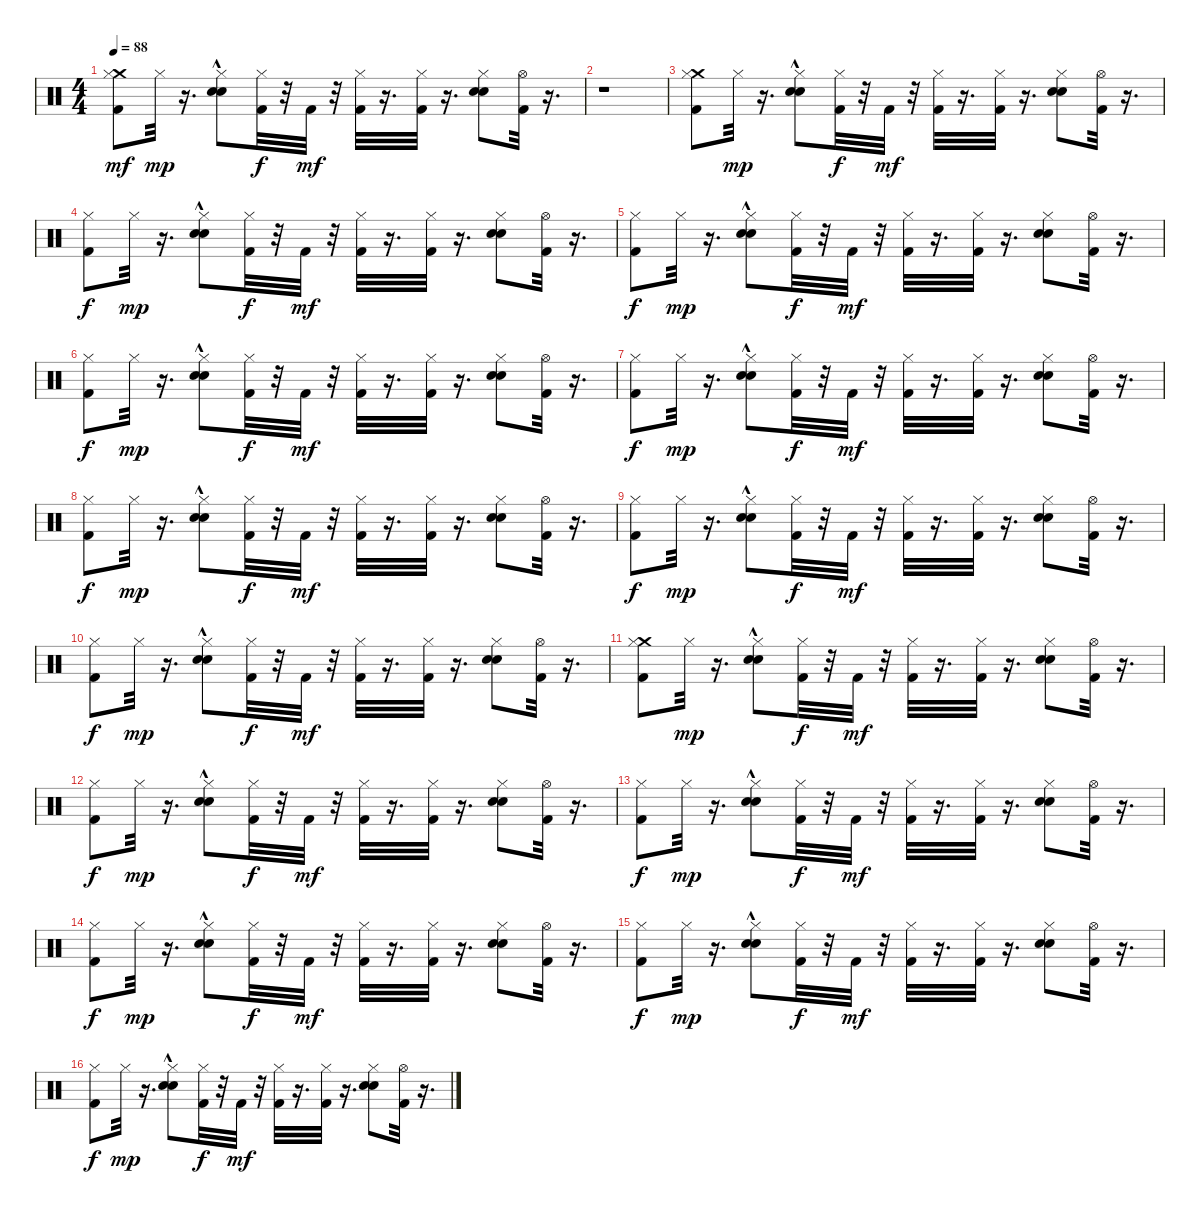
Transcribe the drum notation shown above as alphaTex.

\track "" {instrument percussion}
\staff {score}
\articulation defaults
\ts (4 4)
\tempo 88
\clef neutral
\ks c
("Crash medium (hit)" "Hi-Hat (closed)" "Kick (hit) 2").8{dy mf} "Hi-Hat (closed)".32{dy mp} r.16{d} ("Hi-Hat (closed)" "Hand Clap (hit)" "Electric Snare (hit)"{hac}).8 ("Hi-Hat (closed)" "Kick (hit) 2").32{dy f} r.32 "Kick (hit) 2".32{dy mf} r.32 ("Kick (hit) 2" "Hi-Hat (closed)").32 r.16{d} ("Hi-Hat (closed)" "Kick (hit) 2").32 r.16{d} ("Electric Snare (hit)" "Hi-Hat (closed)" "Hand Clap (hit)").8 ("Hi-Hat (open)" "Kick (hit) 2").32 r.16{d} |
r.1 |
("Crash medium (hit)" "Hi-Hat (closed)" "Kick (hit) 2").8 "Hi-Hat (closed)".32{dy mp} r.16{d} ("Hi-Hat (closed)" "Hand Clap (hit)" "Electric Snare (hit)"{hac}).8 ("Hi-Hat (closed)" "Kick (hit) 2").32{dy f} r.32 "Kick (hit) 2".32{dy mf} r.32 ("Kick (hit) 2" "Hi-Hat (closed)").32 r.16{d} ("Hi-Hat (closed)" "Kick (hit) 2").32 r.16{d} ("Electric Snare (hit)" "Hi-Hat (closed)" "Hand Clap (hit)").8 ("Hi-Hat (open)" "Kick (hit) 2").32 r.16{d} |
("Hi-Hat (closed)" "Kick (hit) 2").8{dy f} "Hi-Hat (closed)".32{dy mp} r.16{d} ("Hi-Hat (closed)" "Hand Clap (hit)" "Electric Snare (hit)"{hac}).8 ("Kick (hit) 2" "Hi-Hat (closed)").32{dy f} r.32 "Kick (hit) 2".32{dy mf} r.32 ("Kick (hit) 2" "Hi-Hat (closed)").32 r.16{d} ("Kick (hit) 2" "Hi-Hat (closed)").32 r.16{d} ("Electric Snare (hit)" "Hi-Hat (closed)" "Hand Clap (hit)").8 ("Hi-Hat (open)" "Kick (hit) 2").32 r.16{d} |
("Hi-Hat (closed)" "Kick (hit) 2").8{dy f} "Hi-Hat (closed)".32{dy mp} r.16{d} ("Hi-Hat (closed)" "Hand Clap (hit)" "Electric Snare (hit)"{hac}).8 ("Hi-Hat (closed)" "Kick (hit) 2").32{dy f} r.32 "Kick (hit) 2".32{dy mf} r.32 ("Kick (hit) 2" "Hi-Hat (closed)").32 r.16{d} ("Hi-Hat (closed)" "Kick (hit) 2").32 r.16{d} ("Electric Snare (hit)" "Hi-Hat (closed)" "Hand Clap (hit)").8 ("Hi-Hat (open)" "Kick (hit) 2").32 r.16{d} |
("Hi-Hat (closed)" "Kick (hit) 2").8{dy f} "Hi-Hat (closed)".32{dy mp} r.16{d} ("Hi-Hat (closed)" "Hand Clap (hit)" "Electric Snare (hit)"{hac}).8 ("Kick (hit) 2" "Hi-Hat (closed)").32{dy f} r.32 "Kick (hit) 2".32{dy mf} r.32 ("Kick (hit) 2" "Hi-Hat (closed)").32 r.16{d} ("Kick (hit) 2" "Hi-Hat (closed)").32 r.16{d} ("Electric Snare (hit)" "Hi-Hat (closed)" "Hand Clap (hit)").8 ("Hi-Hat (open)" "Kick (hit) 2").32 r.16{d} |
("Hi-Hat (closed)" "Kick (hit) 2").8{dy f} "Hi-Hat (closed)".32{dy mp} r.16{d} ("Hi-Hat (closed)" "Hand Clap (hit)" "Electric Snare (hit)"{hac}).8 ("Hi-Hat (closed)" "Kick (hit) 2").32{dy f} r.32 "Kick (hit) 2".32{dy mf} r.32 ("Kick (hit) 2" "Hi-Hat (closed)").32 r.16{d} ("Hi-Hat (closed)" "Kick (hit) 2").32 r.16{d} ("Electric Snare (hit)" "Hi-Hat (closed)" "Hand Clap (hit)").8 ("Hi-Hat (open)" "Kick (hit) 2").32 r.16{d} |
("Hi-Hat (closed)" "Kick (hit) 2").8{dy f} "Hi-Hat (closed)".32{dy mp} r.16{d} ("Hi-Hat (closed)" "Hand Clap (hit)" "Electric Snare (hit)"{hac}).8 ("Kick (hit) 2" "Hi-Hat (closed)").32{dy f} r.32 "Kick (hit) 2".32{dy mf} r.32 ("Kick (hit) 2" "Hi-Hat (closed)").32 r.16{d} ("Kick (hit) 2" "Hi-Hat (closed)").32 r.16{d} ("Electric Snare (hit)" "Hi-Hat (closed)" "Hand Clap (hit)").8 ("Hi-Hat (open)" "Kick (hit) 2").32 r.16{d} |
("Hi-Hat (closed)" "Kick (hit) 2").8{dy f} "Hi-Hat (closed)".32{dy mp} r.16{d} ("Hi-Hat (closed)" "Hand Clap (hit)" "Electric Snare (hit)"{hac}).8 ("Hi-Hat (closed)" "Kick (hit) 2").32{dy f} r.32 "Kick (hit) 2".32{dy mf} r.32 ("Kick (hit) 2" "Hi-Hat (closed)").32 r.16{d} ("Hi-Hat (closed)" "Kick (hit) 2").32 r.16{d} ("Electric Snare (hit)" "Hi-Hat (closed)" "Hand Clap (hit)").8 ("Hi-Hat (open)" "Kick (hit) 2").32 r.16{d} |
("Hi-Hat (closed)" "Kick (hit) 2").8{dy f} "Hi-Hat (closed)".32{dy mp} r.16{d} ("Hi-Hat (closed)" "Hand Clap (hit)" "Electric Snare (hit)"{hac}).8 ("Kick (hit) 2" "Hi-Hat (closed)").32{dy f} r.32 "Kick (hit) 2".32{dy mf} r.32 ("Kick (hit) 2" "Hi-Hat (closed)").32 r.16{d} ("Kick (hit) 2" "Hi-Hat (closed)").32 r.16{d} ("Electric Snare (hit)" "Hi-Hat (closed)" "Hand Clap (hit)").8 ("Hi-Hat (open)" "Kick (hit) 2").32 r.16{d} |
("Crash medium (hit)" "Hi-Hat (closed)" "Kick (hit) 2").8 "Hi-Hat (closed)".32{dy mp} r.16{d} ("Hi-Hat (closed)" "Hand Clap (hit)" "Electric Snare (hit)"{hac}).8 ("Hi-Hat (closed)" "Kick (hit) 2").32{dy f} r.32 "Kick (hit) 2".32{dy mf} r.32 ("Kick (hit) 2" "Hi-Hat (closed)").32 r.16{d} ("Hi-Hat (closed)" "Kick (hit) 2").32 r.16{d} ("Electric Snare (hit)" "Hi-Hat (closed)" "Hand Clap (hit)").8 ("Hi-Hat (open)" "Kick (hit) 2").32 r.16{d} |
("Hi-Hat (closed)" "Kick (hit) 2").8{dy f} "Hi-Hat (closed)".32{dy mp} r.16{d} ("Hi-Hat (closed)" "Hand Clap (hit)" "Electric Snare (hit)"{hac}).8 ("Kick (hit) 2" "Hi-Hat (closed)").32{dy f} r.32 "Kick (hit) 2".32{dy mf} r.32 ("Kick (hit) 2" "Hi-Hat (closed)").32 r.16{d} ("Kick (hit) 2" "Hi-Hat (closed)").32 r.16{d} ("Electric Snare (hit)" "Hi-Hat (closed)" "Hand Clap (hit)").8 ("Hi-Hat (open)" "Kick (hit) 2").32 r.16{d} |
("Hi-Hat (closed)" "Kick (hit) 2").8{dy f} "Hi-Hat (closed)".32{dy mp} r.16{d} ("Hi-Hat (closed)" "Hand Clap (hit)" "Electric Snare (hit)"{hac}).8 ("Hi-Hat (closed)" "Kick (hit) 2").32{dy f} r.32 "Kick (hit) 2".32{dy mf} r.32 ("Kick (hit) 2" "Hi-Hat (closed)").32 r.16{d} ("Hi-Hat (closed)" "Kick (hit) 2").32 r.16{d} ("Electric Snare (hit)" "Hi-Hat (closed)" "Hand Clap (hit)").8 ("Hi-Hat (open)" "Kick (hit) 2").32 r.16{d} |
("Hi-Hat (closed)" "Kick (hit) 2").8{dy f} "Hi-Hat (closed)".32{dy mp} r.16{d} ("Hi-Hat (closed)" "Hand Clap (hit)" "Electric Snare (hit)"{hac}).8 ("Kick (hit) 2" "Hi-Hat (closed)").32{dy f} r.32 "Kick (hit) 2".32{dy mf} r.32 ("Kick (hit) 2" "Hi-Hat (closed)").32 r.16{d} ("Kick (hit) 2" "Hi-Hat (closed)").32 r.16{d} ("Electric Snare (hit)" "Hi-Hat (closed)" "Hand Clap (hit)").8 ("Hi-Hat (open)" "Kick (hit) 2").32 r.16{d} |
("Hi-Hat (closed)" "Kick (hit) 2").8{dy f} "Hi-Hat (closed)".32{dy mp} r.16{d} ("Hi-Hat (closed)" "Hand Clap (hit)" "Electric Snare (hit)"{hac}).8 ("Hi-Hat (closed)" "Kick (hit) 2").32{dy f} r.32 "Kick (hit) 2".32{dy mf} r.32 ("Kick (hit) 2" "Hi-Hat (closed)").32 r.16{d} ("Hi-Hat (closed)" "Kick (hit) 2").32 r.16{d} ("Electric Snare (hit)" "Hi-Hat (closed)" "Hand Clap (hit)").8 ("Hi-Hat (open)" "Kick (hit) 2").32 r.16{d} |
("Hi-Hat (closed)" "Kick (hit) 2").8{dy f} "Hi-Hat (closed)".32{dy mp} r.16{d} ("Hi-Hat (closed)" "Hand Clap (hit)" "Electric Snare (hit)"{hac}).8 ("Kick (hit) 2" "Hi-Hat (closed)").32{dy f} r.32 "Kick (hit) 2".32{dy mf} r.32 ("Kick (hit) 2" "Hi-Hat (closed)").32 r.16{d} ("Kick (hit) 2" "Hi-Hat (closed)").32 r.16{d} ("Electric Snare (hit)" "Hi-Hat (closed)" "Hand Clap (hit)").8 ("Hi-Hat (open)" "Kick (hit) 2").32 r.16{d}
